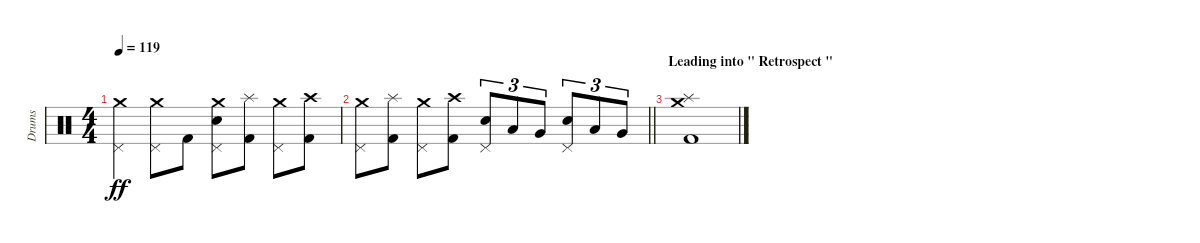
\track ("Drums" "Drums") {instrument percussion}
\staff {score}
\articulation defaults
\ts (4 4)
\tempo 119
\clef neutral
\ks c
("Crash medium (hit)" "Pedal Hi-Hat (hit)").4{dy ff} ("Crash medium (hit)" "Pedal Hi-Hat (hit)").8 "Kick (hit) 2".8 ("Crash medium (hit)" "Pedal Hi-Hat (hit)" "Electric Snare (hit)").8 ("Splash (hit)" "Kick (hit) 2").8 ("Crash medium (hit)" "Pedal Hi-Hat (hit)").8 ("Crash high (hit)" "Kick (hit) 2").8 |
\barLineRight lightlight
("Crash medium (hit)" "Pedal Hi-Hat (hit)").8 ("Splash (hit)" "Kick (hit) 2").8 ("Crash medium (hit)" "Pedal Hi-Hat (hit)").8 ("Crash high (hit)" "Kick (hit) 2").8 ("Pedal Hi-Hat (hit)" "Electric Snare (hit)").8{tu (3 2)} "Low Tom (hit)".8{tu (3 2)} "Very Low Tom (hit)".8{tu (3 2)} ("Pedal Hi-Hat (hit)" "Electric Snare (hit)").8{tu (3 2)} "Low Tom (hit)".8{tu (3 2)} "Very Low Tom (hit)".8{tu (3 2)} |
\section ("" "Leading into \" Retrospect \"")
("Crash medium (hit)" "Splash (hit)" "Kick (hit) 2").1
